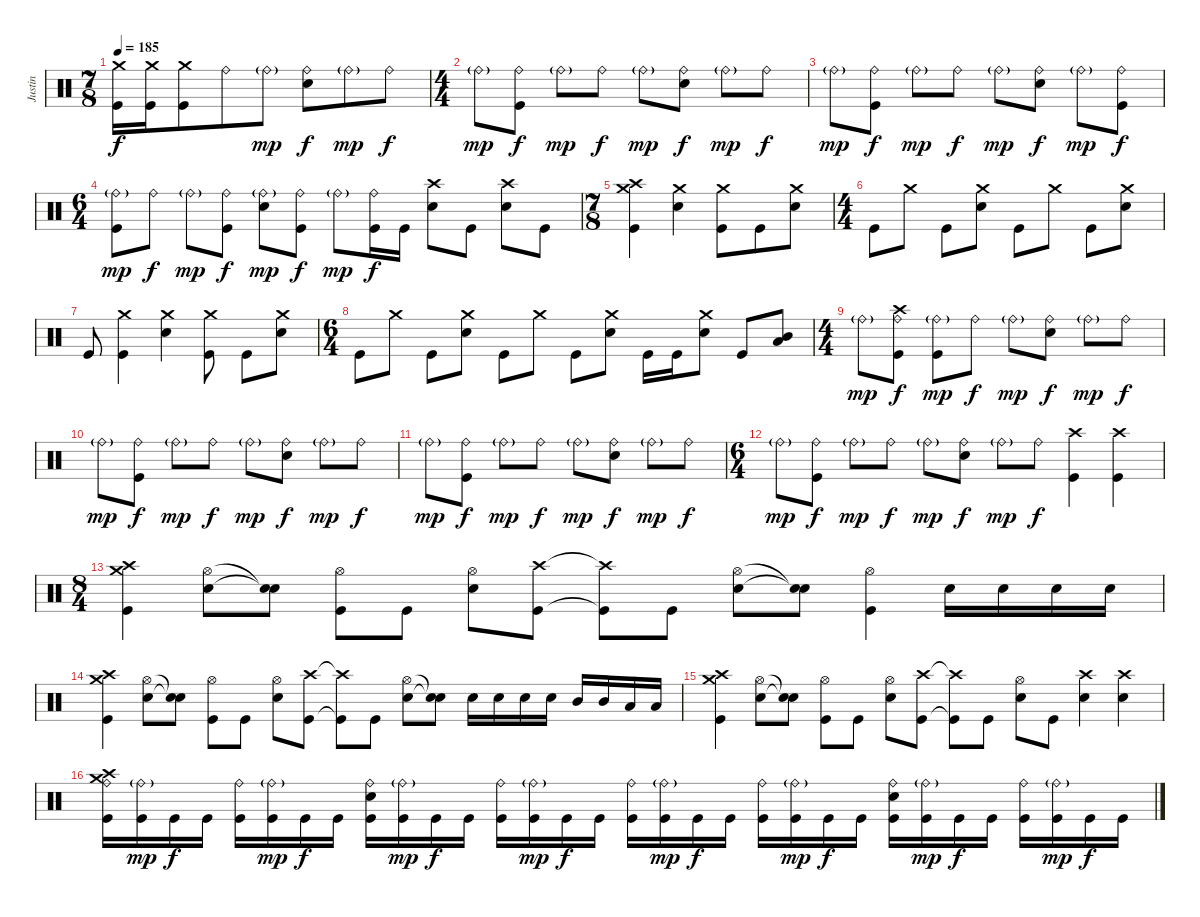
\track ("Justin" "Justin") {instrument percussion}
\staff {score}
\articulation defaults
\ts (7 8)
\tempo 185
\clef neutral
\ks c
("Crash medium (hit)" "Kick (hit)").16{dy f} ("Crash medium (hit)" "Kick (hit)").16 ("Crash medium (hit)" "Kick (hit)").8 "Ride (bell)".8 "Ride (bell)"{g}.8{dy mp} ("Ride (bell)" "Electric Snare (hit)").8{dy f} "Ride (bell)"{g}.8{dy mp} "Ride (bell)".8{dy f} |
\ts (4 4)
"Ride (bell)"{g}.8{dy mp} ("Ride (bell)" "Kick (hit)").8{dy f} "Ride (bell)"{g}.8{dy mp} "Ride (bell)".8{dy f} "Ride (bell)"{g}.8{dy mp} ("Ride (bell)" "Electric Snare (hit)").8{dy f} "Ride (bell)"{g}.8{dy mp} "Ride (bell)".8{dy f} |
"Ride (bell)"{g}.8{dy mp} ("Ride (bell)" "Kick (hit)").8{dy f} "Ride (bell)"{g}.8{dy mp} "Ride (bell)".8{dy f} "Ride (bell)"{g}.8{dy mp} ("Ride (bell)" "Electric Snare (hit)").8{dy f} "Ride (bell)"{g}.8{dy mp} ("Ride (bell)" "Kick (hit)").8{dy f} |
\ts (6 4)
("Ride (bell)"{g} "Kick (hit)").8{dy mp} "Ride (bell)".8{dy f} "Ride (bell)"{g}.8{dy mp} ("Ride (bell)" "Kick (hit)").8{dy f} ("Ride (bell)"{g} "Electric Snare (hit)").8{dy mp} ("Ride (bell)" "Kick (hit)").8{dy f} "Ride (bell)"{g}.8{dy mp} ("Ride (bell)" "Kick (hit)").16{dy f} "Kick (hit)".16 ("Crash high (hit)" "Electric Snare (hit)").8 "Kick (hit)".8 ("Crash high (hit)" "Electric Snare (hit)").8 "Kick (hit)".8 |
\ts (7 8)
("Crash high (hit)" "Crash medium (hit)" "Kick (hit)").4 ("Crash medium (hit)" "Electric Snare (hit)").4 ("Crash medium (hit)" "Kick (hit)").8 "Kick (hit)".8 ("Crash medium (hit)" "Electric Snare (hit)").8 |
\ts (4 4)
"Kick (hit)".8 "Crash medium (hit)".8 "Kick (hit)".8 ("Crash medium (hit)" "Electric Snare (hit)").8 "Kick (hit)".8 "Crash medium (hit)".8 "Kick (hit)".8 ("Crash medium (hit)" "Electric Snare (hit)").8 |
"Kick (hit)".8 ("Crash medium (hit)" "Kick (hit)").4 ("Crash medium (hit)" "Electric Snare (hit)").4 ("Crash medium (hit)" "Kick (hit)").8 "Kick (hit)".8 ("Crash medium (hit)" "Electric Snare (hit)").8 |
\ts (6 4)
"Kick (hit)".8 "Crash medium (hit)".8 "Kick (hit)".8 ("Crash medium (hit)" "Electric Snare (hit)").8 "Kick (hit)".8 "Crash medium (hit)".8 "Kick (hit)".8 ("Crash medium (hit)" "Electric Snare (hit)").8 "Kick (hit)".16 "Kick (hit)".16 ("Crash medium (hit)" "Electric Snare (hit)").8 "Kick (hit)".8 ("Mid Tom (hit)" "Low Tom (hit)").8 |
\ts (4 4)
"Ride (bell)"{g}.8{dy mp} ("Crash high (hit)" "Ride (bell)" "Kick (hit)").8{dy f} ("Ride (bell)"{g} "Kick (hit)").8{dy mp} "Ride (bell)".8{dy f} "Ride (bell)"{g}.8{dy mp} ("Ride (bell)" "Electric Snare (hit)").8{dy f} "Ride (bell)"{g}.8{dy mp} "Ride (bell)".8{dy f} |
"Ride (bell)"{g}.8{dy mp} ("Ride (bell)" "Kick (hit)").8{dy f} "Ride (bell)"{g}.8{dy mp} "Ride (bell)".8{dy f} "Ride (bell)"{g}.8{dy mp} ("Ride (bell)" "Electric Snare (hit)").8{dy f} "Ride (bell)"{g}.8{dy mp} "Ride (bell)".8{dy f} |
"Ride (bell)"{g}.8{dy mp} ("Ride (bell)" "Kick (hit)").8{dy f} "Ride (bell)"{g}.8{dy mp} "Ride (bell)".8{dy f} "Ride (bell)"{g}.8{dy mp} ("Ride (bell)" "Electric Snare (hit)").8{dy f} "Ride (bell)"{g}.8{dy mp} "Ride (bell)".8{dy f} |
\ts (6 4)
"Ride (bell)"{g}.8{dy mp} ("Ride (bell)" "Kick (hit)").8{dy f} "Ride (bell)"{g}.8{dy mp} "Ride (bell)".8{dy f} "Ride (bell)"{g}.8{dy mp} ("Ride (bell)" "Electric Snare (hit)").8{dy f} "Ride (bell)"{g}.8{dy mp} "Ride (bell)".8{dy f} ("Crash high (hit)" "Kick (hit)").4 ("Crash high (hit)" "Kick (hit)").4 |
\ts (8 4)
("Crash high (hit)" "Crash medium (hit)" "Kick (hit)").4 ("Hi-Hat (open)" "Electric Snare (hit)").8 ("Snare (hit)"{t} "Snare (hit)"{t}).8 ("Hi-Hat (open)" "Kick (hit)").8 "Kick (hit)".8 ("Hi-Hat (open)" "Electric Snare (hit)").8 ("Crash high (hit)" "Kick (hit)").8 ("Crash high (hit)"{t} "Kick (hit)"{t}).8 "Kick (hit)".8 ("Hi-Hat (open)" "Electric Snare (hit)").8 ("Snare (hit)"{t} "Snare (hit)"{t}).8 ("Hi-Hat (open)" "Kick (hit)").4 "Electric Snare (hit)".16 "Electric Snare (hit)".16 "Electric Snare (hit)".16 "Electric Snare (hit)".16 |
("Crash high (hit)" "Crash medium (hit)" "Kick (hit)").4 ("Hi-Hat (open)" "Electric Snare (hit)").8 ("Snare (hit)"{t} "Snare (hit)"{t}).8 ("Hi-Hat (open)" "Kick (hit)").8 "Kick (hit)".8 ("Hi-Hat (open)" "Electric Snare (hit)").8 ("Crash high (hit)" "Kick (hit)").8 ("Crash high (hit)"{t} "Kick (hit)"{t}).8 "Kick (hit)".8 ("Hi-Hat (open)" "Electric Snare (hit)").8 ("Snare (hit)"{t} "Snare (hit)"{t}).8 "Electric Snare (hit)".16 "Electric Snare (hit)".16 "Electric Snare (hit)".16 "Electric Snare (hit)".16 "Mid Tom (hit)".16 "Mid Tom (hit)".16 "Low Tom (hit)".16 "Low Tom (hit)".16 |
("Crash high (hit)" "Crash medium (hit)" "Kick (hit)").4 ("Hi-Hat (open)" "Electric Snare (hit)").8 ("Snare (hit)"{t} "Snare (hit)"{t}).8 ("Hi-Hat (open)" "Kick (hit)").8 "Kick (hit)".8 ("Hi-Hat (open)" "Electric Snare (hit)").8 ("Crash high (hit)" "Kick (hit)").8 ("Crash high (hit)"{t} "Kick (hit)"{t}).8 "Kick (hit)".8 ("Hi-Hat (open)" "Electric Snare (hit)").8 "Kick (hit)".8 ("Crash high (hit)" "Electric Snare (hit)").4 ("Crash high (hit)" "Electric Snare (hit)").4 |
("Crash high (hit)" "Crash medium (hit)" "Ride (bell)" "Kick (hit)").16 ("Ride (bell)"{g} "Kick (hit)").16{dy mp} "Kick (hit)".16{dy f} "Kick (hit)".16 ("Ride (bell)" "Kick (hit)").16 ("Ride (bell)"{g} "Kick (hit)").16{dy mp} "Kick (hit)".16{dy f} "Kick (hit)".16 ("Ride (bell)" "Electric Snare (hit)" "Kick (hit)").16 ("Ride (bell)"{g} "Kick (hit)").16{dy mp} "Kick (hit)".16{dy f} "Kick (hit)".16 ("Ride (bell)" "Kick (hit)").16 ("Ride (bell)"{g} "Kick (hit)").16{dy mp} "Kick (hit)".16{dy f} "Kick (hit)".16 ("Ride (bell)" "Kick (hit)").16 ("Ride (bell)"{g} "Kick (hit)").16{dy mp} "Kick (hit)".16{dy f} "Kick (hit)".16 ("Ride (bell)" "Kick (hit)").16 ("Ride (bell)"{g} "Kick (hit)").16{dy mp} "Kick (hit)".16{dy f} "Kick (hit)".16 ("Ride (bell)" "Electric Snare (hit)" "Kick (hit)").16 ("Ride (bell)"{g} "Kick (hit)").16{dy mp} "Kick (hit)".16{dy f} "Kick (hit)".16 ("Ride (bell)" "Kick (hit)").16 ("Ride (bell)"{g} "Kick (hit)").16{dy mp} "Kick (hit)".16{dy f} "Kick (hit)".16
